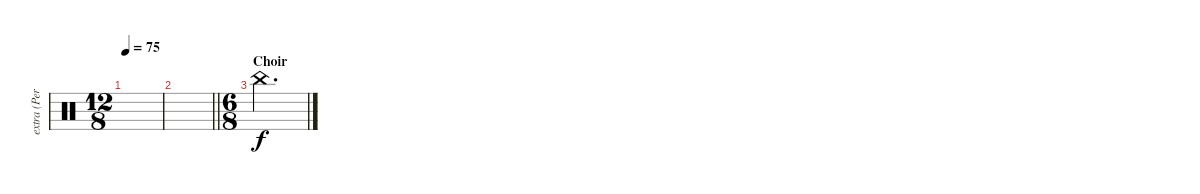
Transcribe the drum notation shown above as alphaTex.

\track ("extra (Percusión)" "extra (Per") {instrument percussion}
\staff {score}
\articulation defaults
\ts (12 8)
\tempo 75
\clef neutral
\ks c
|
\barLineRight lightlight
|
\ts (6 8)
\section ("" "Choir")
"China (hit)".2{d}
